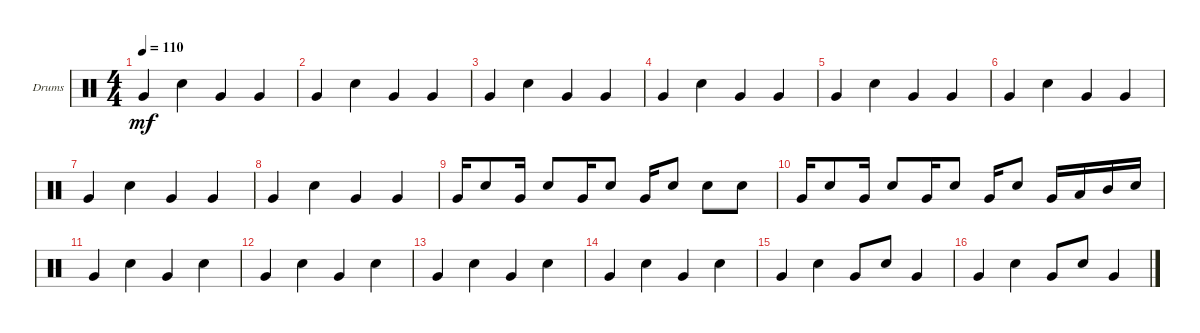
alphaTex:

\defaultSystemsLayout 4
\bracketExtendMode groupsimilarinstruments
\firstSystemTrackNameOrientation horizontal
\otherSystemsTrackNameOrientation horizontal
\track ("Drumkit" "Drums") {instrument percussion}
\staff {score}
\articulation defaults
\ts (4 4)
\tempo 110
\clef neutral
\scale
0.474178
\ks c "Very Low Tom (hit)".4{dy mf} "Snare (hit) 2".4 "Very Low Tom (hit)".4 "Very Low Tom (hit)".4
|
\scale
0.262911 "Very Low Tom (hit)".4 "Snare (hit) 2".4 "Very Low Tom (hit)".4 "Very Low Tom (hit)".4 |
\scale
0.262911 "Very Low Tom (hit)".4 "Snare (hit) 2".4 "Very Low Tom (hit)".4 "Very Low Tom (hit)".4 |
\scale
0.333333 "Very Low Tom (hit)".4 "Snare (hit) 2".4 "Very Low Tom (hit)".4 "Very Low Tom (hit)".4 |
\scale
0.333333 "Very Low Tom (hit)".4 "Snare (hit) 2".4 "Very Low Tom (hit)".4 "Very Low Tom (hit)".4 |
\scale
0.333333 "Very Low Tom (hit)".4 "Snare (hit) 2".4 "Very Low Tom (hit)".4 "Very Low Tom (hit)".4 |
\scale
0.333333 "Very Low Tom (hit)".4 "Snare (hit) 2".4 "Very Low Tom (hit)".4 "Very Low Tom (hit)".4 |
\scale
0.333333 "Very Low Tom (hit)".4 "Snare (hit) 2".4 "Very Low Tom (hit)".4 "Very Low Tom (hit)".4 |
\scale
0.333333 "Very Low Tom (hit)".16 "Snare (hit) 2".8 "Very Low Tom (hit)".16 "Snare (hit) 2".8 "Very Low Tom (hit)".16 "Snare (hit) 2".8 "Very Low Tom (hit)".16 "Snare (hit) 2".8 "Snare (hit) 2".8 "Snare (hit) 2".8 |
"Very Low Tom (hit)".16 "Snare (hit) 2".8 "Very Low Tom (hit)".16 "Snare (hit) 2".8 "Very Low Tom (hit)".16 "Snare (hit) 2".8 "Very Low Tom (hit)".16 "Snare (hit) 2".8 "Very Low Tom (hit)".16 "Low Tom (hit)".16 "Mid Tom (hit)".16 "Snare (hit) 2".16 |
"Very Low Tom (hit)".4 "Snare (hit) 2".4 "Very Low Tom (hit)".4 "Snare (hit) 2".4 |
"Very Low Tom (hit)".4 "Snare (hit) 2".4 "Very Low Tom (hit)".4 "Snare (hit) 2".4 |
"Very Low Tom (hit)".4 "Snare (hit) 2".4 "Very Low Tom (hit)".4 "Snare (hit) 2".4 |
"Very Low Tom (hit)".4 "Snare (hit) 2".4 "Very Low Tom (hit)".4 "Snare (hit) 2".4 |
"Very Low Tom (hit)".4 "Snare (hit) 2".4 "Very Low Tom (hit)".8 "Snare (hit) 2".8 "Very Low Tom (hit)".4 |
"Very Low Tom (hit)".4 "Snare (hit) 2".4 "Very Low Tom (hit)".8 "Snare (hit) 2".8 "Very Low Tom (hit)".4
